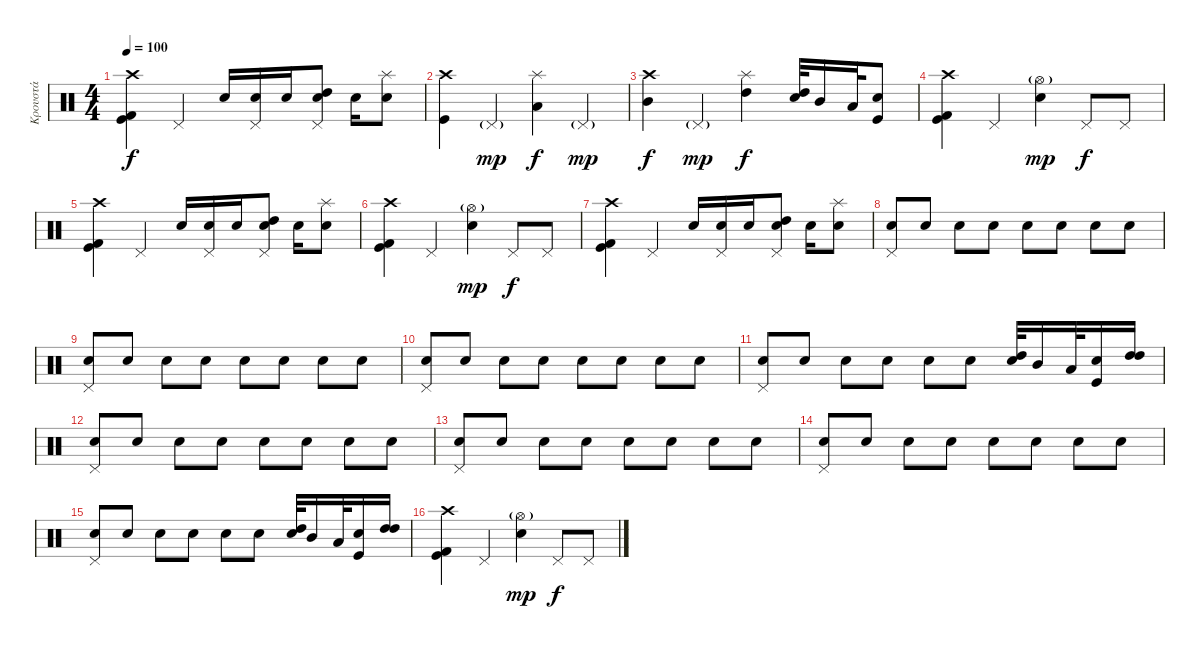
\track ("Κρουστά" "Κρουστά") {instrument percussion}
\staff {score}
\articulation defaults
\ts (4 4)
\tempo 100
\clef neutral
\ks c
("Kick (hit) 2" "Kick (hit)" "Crash high (hit)").4{dy f} "Pedal Hi-Hat (hit)".4 "Snare (hit) 2".16 ("Snare (hit) 2" "Pedal Hi-Hat (hit)").16 "Snare (hit) 2".16 ("Snare (hit) 2" "Pedal Hi-Hat (hit)" "High Tom (hit)").8 "Snare (hit) 2".16 ("Snare (hit) 2" "Splash (hit)").8 |
("Kick (hit)" "Crash high (hit)").4 "Pedal Hi-Hat (hit)"{g}.4{dy mp} ("Low Tom (hit)" "Splash (hit)").4{dy f} "Pedal Hi-Hat (hit)"{g}.4{dy mp} |
("Mid Tom (hit)" "Crash high (hit)").4{dy f} "Pedal Hi-Hat (hit)"{g}.4{dy mp} ("High Tom (hit)" "Splash (hit)").4{dy f} ("High Tom (hit)" "Snare (hit) 2").32 "Mid Tom (hit)".16 "Low Tom (hit)".32 ("Kick (hit)" "Snare (hit) 2").8 |
("Kick (hit) 2" "Kick (hit)" "Crash high (hit)").4 "Pedal Hi-Hat (hit)".4 ("Snare (hit) 2" "Hi-Hat (open)"{g}).4{dy mp} "Pedal Hi-Hat (hit)".8{dy f} "Pedal Hi-Hat (hit)".8 |
("Kick (hit) 2" "Kick (hit)" "Crash high (hit)").4 "Pedal Hi-Hat (hit)".4 "Snare (hit) 2".16 ("Snare (hit) 2" "Pedal Hi-Hat (hit)").16 "Snare (hit) 2".16 ("Snare (hit) 2" "Pedal Hi-Hat (hit)" "High Tom (hit)").8 "Snare (hit) 2".16 ("Snare (hit) 2" "Splash (hit)").8 |
("Kick (hit) 2" "Kick (hit)" "Crash high (hit)").4 "Pedal Hi-Hat (hit)".4 ("Snare (hit) 2" "Hi-Hat (open)"{g}).4{dy mp} "Pedal Hi-Hat (hit)".8{dy f} "Pedal Hi-Hat (hit)".8 |
("Kick (hit) 2" "Kick (hit)" "Crash high (hit)").4 "Pedal Hi-Hat (hit)".4 "Snare (hit) 2".16 ("Snare (hit) 2" "Pedal Hi-Hat (hit)").16 "Snare (hit) 2".16 ("Snare (hit) 2" "Pedal Hi-Hat (hit)" "High Tom (hit)").8 "Snare (hit) 2".16 ("Snare (hit) 2" "Splash (hit)").8 |
("Snare (hit) 2" "Pedal Hi-Hat (hit)").8 "Snare (hit) 2".8 "Snare (hit) 2".8 "Snare (hit) 2".8 "Snare (hit) 2".8 "Snare (hit) 2".8 "Snare (hit) 2".8 "Snare (hit) 2".8 |
("Snare (hit) 2" "Pedal Hi-Hat (hit)").8 "Snare (hit) 2".8 "Snare (hit) 2".8 "Snare (hit) 2".8 "Snare (hit) 2".8 "Snare (hit) 2".8 "Snare (hit) 2".8 "Snare (hit) 2".8 |
("Snare (hit) 2" "Pedal Hi-Hat (hit)").8 "Snare (hit) 2".8 "Snare (hit) 2".8 "Snare (hit) 2".8 "Snare (hit) 2".8 "Snare (hit) 2".8 "Snare (hit) 2".8 "Snare (hit) 2".8 |
("Snare (hit) 2" "Pedal Hi-Hat (hit)").8 "Snare (hit) 2".8 "Snare (hit) 2".8 "Snare (hit) 2".8 "Snare (hit) 2".8 "Snare (hit) 2".8 ("High Tom (hit)" "Snare (hit) 2").32 "Mid Tom (hit)".16 "Low Tom (hit)".32 ("Kick (hit)" "Snare (hit) 2").16 ("High Tom (hit)" "High Tom (hit)").16 |
("Snare (hit) 2" "Pedal Hi-Hat (hit)").8 "Snare (hit) 2".8 "Snare (hit) 2".8 "Snare (hit) 2".8 "Snare (hit) 2".8 "Snare (hit) 2".8 "Snare (hit) 2".8 "Snare (hit) 2".8 |
("Snare (hit) 2" "Pedal Hi-Hat (hit)").8 "Snare (hit) 2".8 "Snare (hit) 2".8 "Snare (hit) 2".8 "Snare (hit) 2".8 "Snare (hit) 2".8 "Snare (hit) 2".8 "Snare (hit) 2".8 |
("Snare (hit) 2" "Pedal Hi-Hat (hit)").8 "Snare (hit) 2".8 "Snare (hit) 2".8 "Snare (hit) 2".8 "Snare (hit) 2".8 "Snare (hit) 2".8 "Snare (hit) 2".8 "Snare (hit) 2".8 |
("Snare (hit) 2" "Pedal Hi-Hat (hit)").8 "Snare (hit) 2".8 "Snare (hit) 2".8 "Snare (hit) 2".8 "Snare (hit) 2".8 "Snare (hit) 2".8 ("High Tom (hit)" "Snare (hit) 2").32 "Mid Tom (hit)".16 "Low Tom (hit)".32 ("Kick (hit)" "Snare (hit) 2").16 ("High Tom (hit)" "High Tom (hit)").16 |
("Kick (hit) 2" "Kick (hit)" "Crash high (hit)").4 "Pedal Hi-Hat (hit)".4 ("Snare (hit) 2" "Hi-Hat (open)"{g}).4{dy mp} "Pedal Hi-Hat (hit)".8{dy f} "Pedal Hi-Hat (hit)".8
